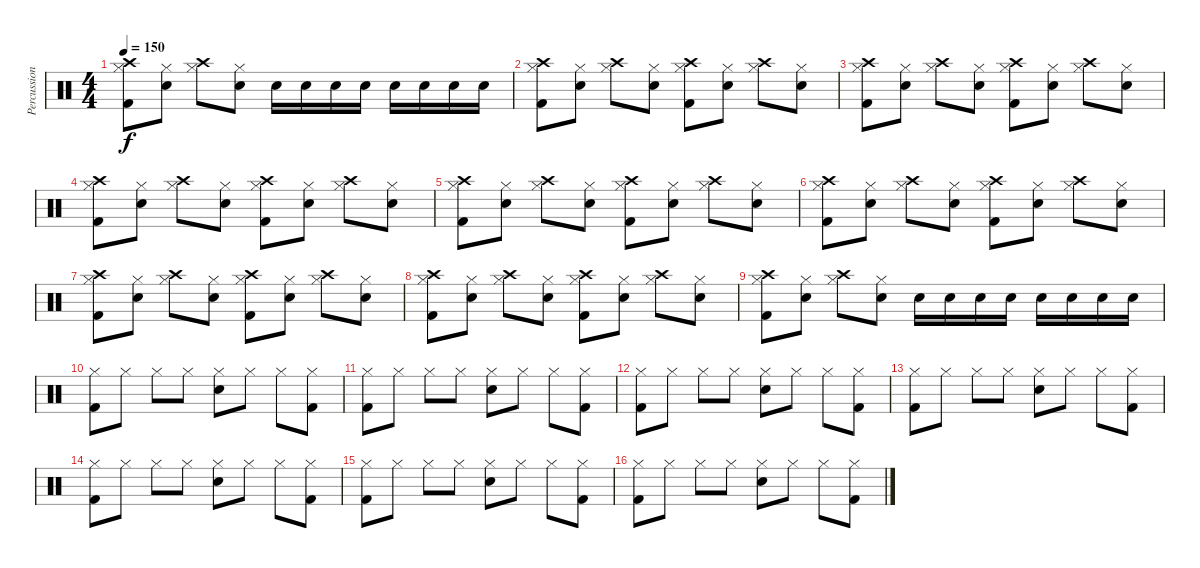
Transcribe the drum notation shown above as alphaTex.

\track ("Percussion" "Percussion") {instrument percussion}
\staff {score}
\articulation defaults
\ts (4 4)
\tempo 150
\clef neutral
\ks c
("Hi-Hat (closed)" "Kick (hit) 2" "Crash high (hit)").8{dy f} ("Hi-Hat (closed)" "Electric Snare (hit)").8 ("Hi-Hat (closed)" "Crash high (hit)").8 ("Hi-Hat (closed)" "Electric Snare (hit)").8 "Electric Snare (hit)".16 "Electric Snare (hit)".16 "Electric Snare (hit)".16 "Electric Snare (hit)".16 "Electric Snare (hit)".16 "Electric Snare (hit)".16 "Electric Snare (hit)".16 "Electric Snare (hit)".16 |
("Hi-Hat (closed)" "Kick (hit) 2" "Crash high (hit)").8 ("Hi-Hat (closed)" "Electric Snare (hit)").8 ("Hi-Hat (closed)" "Crash high (hit)").8 ("Hi-Hat (closed)" "Electric Snare (hit)").8 ("Hi-Hat (closed)" "Kick (hit) 2" "Crash high (hit)").8 ("Hi-Hat (closed)" "Electric Snare (hit)").8 ("Hi-Hat (closed)" "Crash high (hit)").8 ("Hi-Hat (closed)" "Electric Snare (hit)").8 |
("Hi-Hat (closed)" "Kick (hit) 2" "Crash high (hit)").8 ("Hi-Hat (closed)" "Electric Snare (hit)").8 ("Hi-Hat (closed)" "Crash high (hit)").8 ("Hi-Hat (closed)" "Electric Snare (hit)").8 ("Hi-Hat (closed)" "Kick (hit) 2" "Crash high (hit)").8 ("Hi-Hat (closed)" "Electric Snare (hit)").8 ("Hi-Hat (closed)" "Crash high (hit)").8 ("Hi-Hat (closed)" "Electric Snare (hit)").8 |
("Hi-Hat (closed)" "Kick (hit) 2" "Crash high (hit)").8 ("Hi-Hat (closed)" "Electric Snare (hit)").8 ("Hi-Hat (closed)" "Crash high (hit)").8 ("Hi-Hat (closed)" "Electric Snare (hit)").8 ("Hi-Hat (closed)" "Kick (hit) 2" "Crash high (hit)").8 ("Hi-Hat (closed)" "Electric Snare (hit)").8 ("Hi-Hat (closed)" "Crash high (hit)").8 ("Hi-Hat (closed)" "Electric Snare (hit)").8 |
("Hi-Hat (closed)" "Kick (hit) 2" "Crash high (hit)").8 ("Hi-Hat (closed)" "Electric Snare (hit)").8 ("Hi-Hat (closed)" "Crash high (hit)").8 ("Hi-Hat (closed)" "Electric Snare (hit)").8 ("Hi-Hat (closed)" "Kick (hit) 2" "Crash high (hit)").8 ("Hi-Hat (closed)" "Electric Snare (hit)").8 ("Hi-Hat (closed)" "Crash high (hit)").8 ("Hi-Hat (closed)" "Electric Snare (hit)").8 |
("Hi-Hat (closed)" "Kick (hit) 2" "Crash high (hit)").8 ("Hi-Hat (closed)" "Electric Snare (hit)").8 ("Hi-Hat (closed)" "Crash high (hit)").8 ("Hi-Hat (closed)" "Electric Snare (hit)").8 ("Hi-Hat (closed)" "Kick (hit) 2" "Crash high (hit)").8 ("Hi-Hat (closed)" "Electric Snare (hit)").8 ("Hi-Hat (closed)" "Crash high (hit)").8 ("Hi-Hat (closed)" "Electric Snare (hit)").8 |
("Hi-Hat (closed)" "Kick (hit) 2" "Crash high (hit)").8 ("Hi-Hat (closed)" "Electric Snare (hit)").8 ("Hi-Hat (closed)" "Crash high (hit)").8 ("Hi-Hat (closed)" "Electric Snare (hit)").8 ("Hi-Hat (closed)" "Kick (hit) 2" "Crash high (hit)").8 ("Hi-Hat (closed)" "Electric Snare (hit)").8 ("Hi-Hat (closed)" "Crash high (hit)").8 ("Hi-Hat (closed)" "Electric Snare (hit)").8 |
("Hi-Hat (closed)" "Kick (hit) 2" "Crash high (hit)").8 ("Hi-Hat (closed)" "Electric Snare (hit)").8 ("Hi-Hat (closed)" "Crash high (hit)").8 ("Hi-Hat (closed)" "Electric Snare (hit)").8 ("Hi-Hat (closed)" "Kick (hit) 2" "Crash high (hit)").8 ("Hi-Hat (closed)" "Electric Snare (hit)").8 ("Hi-Hat (closed)" "Crash high (hit)").8 ("Hi-Hat (closed)" "Electric Snare (hit)").8 |
("Hi-Hat (closed)" "Kick (hit) 2" "Crash high (hit)").8 ("Hi-Hat (closed)" "Electric Snare (hit)").8 ("Hi-Hat (closed)" "Crash high (hit)").8 ("Hi-Hat (closed)" "Electric Snare (hit)").8 "Electric Snare (hit)".16 "Electric Snare (hit)".16 "Electric Snare (hit)".16 "Electric Snare (hit)".16 "Electric Snare (hit)".16 "Electric Snare (hit)".16 "Electric Snare (hit)".16 "Electric Snare (hit)".16 |
("Hi-Hat (closed)" "Kick (hit) 2").8 "Hi-Hat (closed)".8 "Hi-Hat (closed)".8 "Hi-Hat (closed)".8 ("Hi-Hat (closed)" "Electric Snare (hit)").8 "Hi-Hat (closed)".8 "Hi-Hat (closed)".8 ("Hi-Hat (closed)" "Kick (hit) 2").8 |
("Hi-Hat (closed)" "Kick (hit) 2").8 "Hi-Hat (closed)".8 "Hi-Hat (closed)".8 "Hi-Hat (closed)".8 ("Hi-Hat (closed)" "Electric Snare (hit)").8 "Hi-Hat (closed)".8 "Hi-Hat (closed)".8 ("Hi-Hat (closed)" "Kick (hit) 2").8 |
("Hi-Hat (closed)" "Kick (hit) 2").8 "Hi-Hat (closed)".8 "Hi-Hat (closed)".8 "Hi-Hat (closed)".8 ("Hi-Hat (closed)" "Electric Snare (hit)").8 "Hi-Hat (closed)".8 "Hi-Hat (closed)".8 ("Hi-Hat (closed)" "Kick (hit) 2").8 |
("Hi-Hat (closed)" "Kick (hit) 2").8 "Hi-Hat (closed)".8 "Hi-Hat (closed)".8 "Hi-Hat (closed)".8 ("Hi-Hat (closed)" "Electric Snare (hit)").8 "Hi-Hat (closed)".8 "Hi-Hat (closed)".8 ("Hi-Hat (closed)" "Kick (hit) 2").8 |
("Hi-Hat (closed)" "Kick (hit) 2").8 "Hi-Hat (closed)".8 "Hi-Hat (closed)".8 "Hi-Hat (closed)".8 ("Hi-Hat (closed)" "Electric Snare (hit)").8 "Hi-Hat (closed)".8 "Hi-Hat (closed)".8 ("Hi-Hat (closed)" "Kick (hit) 2").8 |
("Hi-Hat (closed)" "Kick (hit) 2").8 "Hi-Hat (closed)".8 "Hi-Hat (closed)".8 "Hi-Hat (closed)".8 ("Hi-Hat (closed)" "Electric Snare (hit)").8 "Hi-Hat (closed)".8 "Hi-Hat (closed)".8 ("Hi-Hat (closed)" "Kick (hit) 2").8 |
("Hi-Hat (closed)" "Kick (hit) 2").8 "Hi-Hat (closed)".8 "Hi-Hat (closed)".8 "Hi-Hat (closed)".8 ("Hi-Hat (closed)" "Electric Snare (hit)").8 "Hi-Hat (closed)".8 "Hi-Hat (closed)".8 ("Hi-Hat (closed)" "Kick (hit) 2").8
